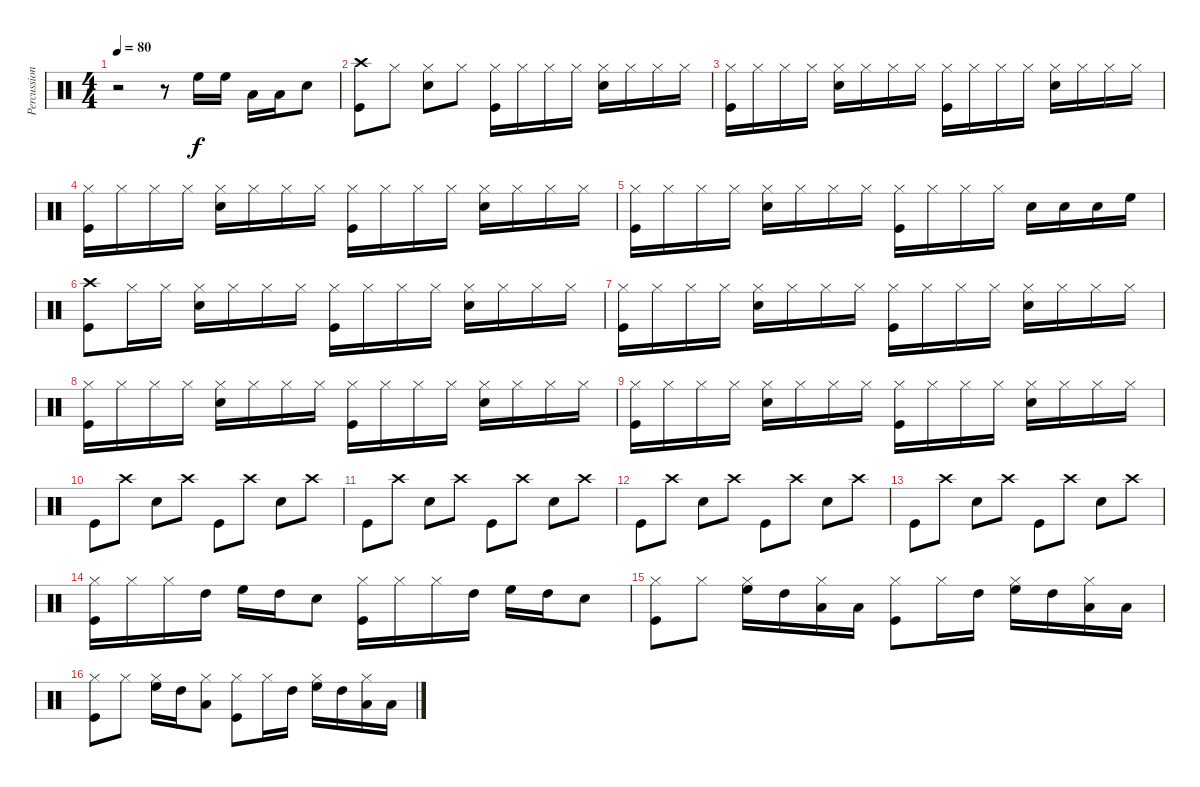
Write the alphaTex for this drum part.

\track ("Percussion" "Percussion") {instrument percussion}
\staff {score}
\articulation defaults
\ts (4 4)
\tempo 80
\clef neutral
\ks c
r.2{dy f} r.8 "High Floor Tom (hit)".16 "High Floor Tom (hit)".16 "Low Tom (hit)".16 "Low Tom (hit)".16 "Snare (hit) 2".8 |
("Crash high (hit)" "Kick (hit)").8 "Hi-Hat (closed)".8 ("Hi-Hat (closed)" "Snare (hit) 2").8 "Hi-Hat (closed)".8 ("Hi-Hat (closed)" "Kick (hit)").16 "Hi-Hat (closed)".16 "Hi-Hat (closed)".16 "Hi-Hat (closed)".16 ("Hi-Hat (closed)" "Snare (hit) 2").16 "Hi-Hat (closed)".16 "Hi-Hat (closed)".16 "Hi-Hat (closed)".16 |
("Hi-Hat (closed)" "Kick (hit)").16 "Hi-Hat (closed)".16 "Hi-Hat (closed)".16 "Hi-Hat (closed)".16 ("Hi-Hat (closed)" "Snare (hit) 2").16 "Hi-Hat (closed)".16 "Hi-Hat (closed)".16 "Hi-Hat (closed)".16 ("Hi-Hat (closed)" "Kick (hit)").16 "Hi-Hat (closed)".16 "Hi-Hat (closed)".16 "Hi-Hat (closed)".16 ("Hi-Hat (closed)" "Snare (hit) 2").16 "Hi-Hat (closed)".16 "Hi-Hat (closed)".16 "Hi-Hat (closed)".16 |
("Hi-Hat (closed)" "Kick (hit)").16 "Hi-Hat (closed)".16 "Hi-Hat (closed)".16 "Hi-Hat (closed)".16 ("Hi-Hat (closed)" "Snare (hit) 2").16 "Hi-Hat (closed)".16 "Hi-Hat (closed)".16 "Hi-Hat (closed)".16 ("Hi-Hat (closed)" "Kick (hit)").16 "Hi-Hat (closed)".16 "Hi-Hat (closed)".16 "Hi-Hat (closed)".16 ("Hi-Hat (closed)" "Snare (hit) 2").16 "Hi-Hat (closed)".16 "Hi-Hat (closed)".16 "Hi-Hat (closed)".16 |
("Hi-Hat (closed)" "Kick (hit)").16 "Hi-Hat (closed)".16 "Hi-Hat (closed)".16 "Hi-Hat (closed)".16 ("Hi-Hat (closed)" "Snare (hit) 2").16 "Hi-Hat (closed)".16 "Hi-Hat (closed)".16 "Hi-Hat (closed)".16 ("Hi-Hat (closed)" "Kick (hit)").16 "Hi-Hat (closed)".16 "Hi-Hat (closed)".16 "Hi-Hat (closed)".16 "Snare (hit) 2".16 "Snare (hit) 2".16 "Snare (hit) 2".16 "High Floor Tom (hit)".16 |
("Crash high (hit)" "Kick (hit)").8 "Hi-Hat (closed)".16 "Hi-Hat (closed)".16 ("Hi-Hat (closed)" "Snare (hit) 2").16 "Hi-Hat (closed)".16 "Hi-Hat (closed)".16 "Hi-Hat (closed)".16 ("Hi-Hat (closed)" "Kick (hit)").16 "Hi-Hat (closed)".16 "Hi-Hat (closed)".16 "Hi-Hat (closed)".16 ("Hi-Hat (closed)" "Snare (hit) 2").16 "Hi-Hat (closed)".16 "Hi-Hat (closed)".16 "Hi-Hat (closed)".16 |
("Hi-Hat (closed)" "Kick (hit)").16 "Hi-Hat (closed)".16 "Hi-Hat (closed)".16 "Hi-Hat (closed)".16 ("Hi-Hat (closed)" "Snare (hit) 2").16 "Hi-Hat (closed)".16 "Hi-Hat (closed)".16 "Hi-Hat (closed)".16 ("Hi-Hat (closed)" "Kick (hit)").16 "Hi-Hat (closed)".16 "Hi-Hat (closed)".16 "Hi-Hat (closed)".16 ("Hi-Hat (closed)" "Snare (hit) 2").16 "Hi-Hat (closed)".16 "Hi-Hat (closed)".16 "Hi-Hat (closed)".16 |
("Hi-Hat (closed)" "Kick (hit)").16 "Hi-Hat (closed)".16 "Hi-Hat (closed)".16 "Hi-Hat (closed)".16 ("Hi-Hat (closed)" "Snare (hit) 2").16 "Hi-Hat (closed)".16 "Hi-Hat (closed)".16 "Hi-Hat (closed)".16 ("Hi-Hat (closed)" "Kick (hit)").16 "Hi-Hat (closed)".16 "Hi-Hat (closed)".16 "Hi-Hat (closed)".16 ("Hi-Hat (closed)" "Snare (hit) 2").16 "Hi-Hat (closed)".16 "Hi-Hat (closed)".16 "Hi-Hat (closed)".16 |
("Hi-Hat (closed)" "Kick (hit)").16 "Hi-Hat (closed)".16 "Hi-Hat (closed)".16 "Hi-Hat (closed)".16 ("Hi-Hat (closed)" "Snare (hit) 2").16 "Hi-Hat (closed)".16 "Hi-Hat (closed)".16 "Hi-Hat (closed)".16 ("Hi-Hat (closed)" "Kick (hit)").16 "Hi-Hat (closed)".16 "Hi-Hat (closed)".16 "Hi-Hat (closed)".16 ("Hi-Hat (closed)" "Snare (hit) 2").16 "Hi-Hat (closed)".16 "Hi-Hat (closed)".16 "Hi-Hat (closed)".16 |
"Kick (hit)".8 "Crash high (hit)".8 "Snare (hit) 2".8 "Crash high (hit)".8 "Kick (hit)".8 "Crash high (hit)".8 "Snare (hit) 2".8 "Crash high (hit)".8 |
"Kick (hit)".8 "Crash high (hit)".8 "Snare (hit) 2".8 "Crash high (hit)".8 "Kick (hit)".8 "Crash high (hit)".8 "Snare (hit) 2".8 "Crash high (hit)".8 |
"Kick (hit)".8 "Crash high (hit)".8 "Snare (hit) 2".8 "Crash high (hit)".8 "Kick (hit)".8 "Crash high (hit)".8 "Snare (hit) 2".8 "Crash high (hit)".8 |
"Kick (hit)".8 "Crash high (hit)".8 "Snare (hit) 2".8 "Crash high (hit)".8 "Kick (hit)".8 "Crash high (hit)".8 "Snare (hit) 2".8 "Crash high (hit)".8 |
("Hi-Hat (closed)" "Kick (hit)").16 "Hi-Hat (closed)".16 "Hi-Hat (closed)".16 "High Tom (hit)".16 "High Floor Tom (hit)".16 "High Tom (hit)".16 "Snare (hit) 2".8 ("Hi-Hat (closed)" "Kick (hit)").16 "Hi-Hat (closed)".16 "Hi-Hat (closed)".16 "High Tom (hit)".16 "High Floor Tom (hit)".16 "High Tom (hit)".16 "Snare (hit) 2".8 |
("Hi-Hat (closed)" "Kick (hit)").8 "Hi-Hat (closed)".8 ("Hi-Hat (closed)" "High Floor Tom (hit)").16 "High Tom (hit)".16 ("Hi-Hat (closed)" "Low Tom (hit)").16 "Low Tom (hit)".16 ("Hi-Hat (closed)" "Kick (hit)").8 "Hi-Hat (closed)".16 "High Tom (hit)".16 ("Hi-Hat (closed)" "High Floor Tom (hit)").16 "High Tom (hit)".16 ("Hi-Hat (closed)" "Low Tom (hit)").16 "Low Tom (hit)".16 |
("Hi-Hat (closed)" "Kick (hit)").8 "Hi-Hat (closed)".8 ("Hi-Hat (closed)" "High Floor Tom (hit)").16 "High Tom (hit)".16 ("Hi-Hat (closed)" "Low Tom (hit)").8 ("Hi-Hat (closed)" "Kick (hit)").8 "Hi-Hat (closed)".16 "High Tom (hit)".16 ("Hi-Hat (closed)" "High Floor Tom (hit)").16 "High Tom (hit)".16 ("Hi-Hat (closed)" "Low Tom (hit)").16 "Low Tom (hit)".16
